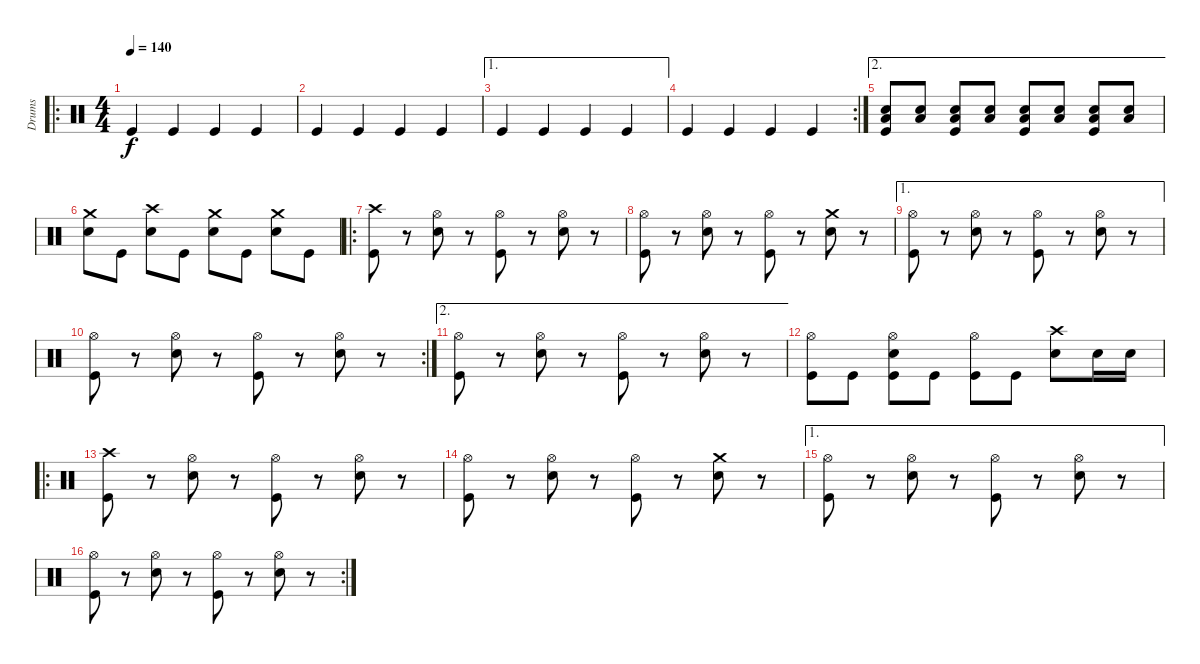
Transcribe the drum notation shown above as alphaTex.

\track ("Drums" "Drums") {instrument percussion}
\staff {score}
\articulation defaults
\ro
\ts (4 4)
\tempo 140
\clef neutral
\ks c "Kick (hit)".4{dy f} "Kick (hit)".4 "Kick (hit)".4 "Kick (hit)".4
|
"Kick (hit)".4 "Kick (hit)".4 "Kick (hit)".4 "Kick (hit)".4 |
\ae 1 "Kick (hit)".4 "Kick (hit)".4 "Kick (hit)".4 "Kick (hit)".4
|
\rc 2 "Kick (hit)".4 "Kick (hit)".4 "Kick (hit)".4 "Kick (hit)".4
|
\ae 2
("Low Floor Tom (hit)" "Snare (hit) 2" "Kick (hit)").8 ("Low Floor Tom (hit)" "Snare (hit) 2").8 ("Low Floor Tom (hit)" "Snare (hit) 2" "Kick (hit)").8 ("Low Floor Tom (hit)" "Snare (hit) 2").8 ("Low Floor Tom (hit)" "Snare (hit) 2" "Kick (hit)").8 ("Low Floor Tom (hit)" "Snare (hit) 2").8 ("Low Floor Tom (hit)" "Snare (hit) 2" "Kick (hit)").8 ("Low Floor Tom (hit)" "Snare (hit) 2").8 |
("Crash medium (hit)" "Snare (hit) 2").8 "Kick (hit)".8 ("Crash high (hit)" "Snare (hit) 2").8 "Kick (hit)".8 ("Crash medium (hit)" "Snare (hit) 2").8 "Kick (hit)".8 ("Crash medium (hit)" "Snare (hit) 2").8 "Kick (hit)".8 |
\ro
("Crash high (hit)" "Kick (hit)").8 r.8 ("Hi-Hat (open)" "Snare (hit) 2").8 r.8 ("Hi-Hat (open)" "Kick (hit)").8 r.8 ("Hi-Hat (open)" "Snare (hit) 2").8 r.8 |
("Hi-Hat (open)" "Kick (hit)").8 r.8 ("Hi-Hat (open)" "Snare (hit) 2").8 r.8 ("Hi-Hat (open)" "Kick (hit)").8 r.8 ("Crash medium (hit)" "Snare (hit) 2").8 r.8 |
\ae 1
("Hi-Hat (open)" "Kick (hit)").8 r.8 ("Hi-Hat (open)" "Snare (hit) 2").8 r.8 ("Hi-Hat (open)" "Kick (hit)").8 r.8 ("Hi-Hat (open)" "Snare (hit) 2").8 r.8 |
\rc 2
("Hi-Hat (open)" "Kick (hit)").8 r.8 ("Hi-Hat (open)" "Snare (hit) 2").8 r.8 ("Hi-Hat (open)" "Kick (hit)").8 r.8 ("Hi-Hat (open)" "Snare (hit) 2").8 r.8 |
\ae 2
("Hi-Hat (open)" "Kick (hit)").8 r.8 ("Hi-Hat (open)" "Snare (hit) 2").8 r.8 ("Hi-Hat (open)" "Kick (hit)").8 r.8 ("Hi-Hat (open)" "Snare (hit) 2").8 r.8 |
("Hi-Hat (open)" "Kick (hit)").8 "Kick (hit)".8 ("Hi-Hat (open)" "Snare (hit) 2" "Kick (hit)").8 "Kick (hit)".8 ("Hi-Hat (open)" "Kick (hit)").8 "Kick (hit)".8 ("Crash high (hit)" "Snare (hit) 2").8 "Snare (hit) 2".16 "Snare (hit) 2".16 |
\ro
("Crash high (hit)" "Kick (hit)").8 r.8 ("Hi-Hat (open)" "Snare (hit) 2").8 r.8 ("Hi-Hat (open)" "Kick (hit)").8 r.8 ("Hi-Hat (open)" "Snare (hit) 2").8 r.8 |
("Hi-Hat (open)" "Kick (hit)").8 r.8 ("Hi-Hat (open)" "Snare (hit) 2").8 r.8 ("Hi-Hat (open)" "Kick (hit)").8 r.8 ("Crash medium (hit)" "Snare (hit) 2").8 r.8 |
\ae 1
("Hi-Hat (open)" "Kick (hit)").8 r.8 ("Hi-Hat (open)" "Snare (hit) 2").8 r.8 ("Hi-Hat (open)" "Kick (hit)").8 r.8 ("Hi-Hat (open)" "Snare (hit) 2").8 r.8 |
\rc 2
("Hi-Hat (open)" "Kick (hit)").8 r.8 ("Hi-Hat (open)" "Snare (hit) 2").8 r.8 ("Hi-Hat (open)" "Kick (hit)").8 r.8 ("Hi-Hat (open)" "Snare (hit) 2").8 r.8
